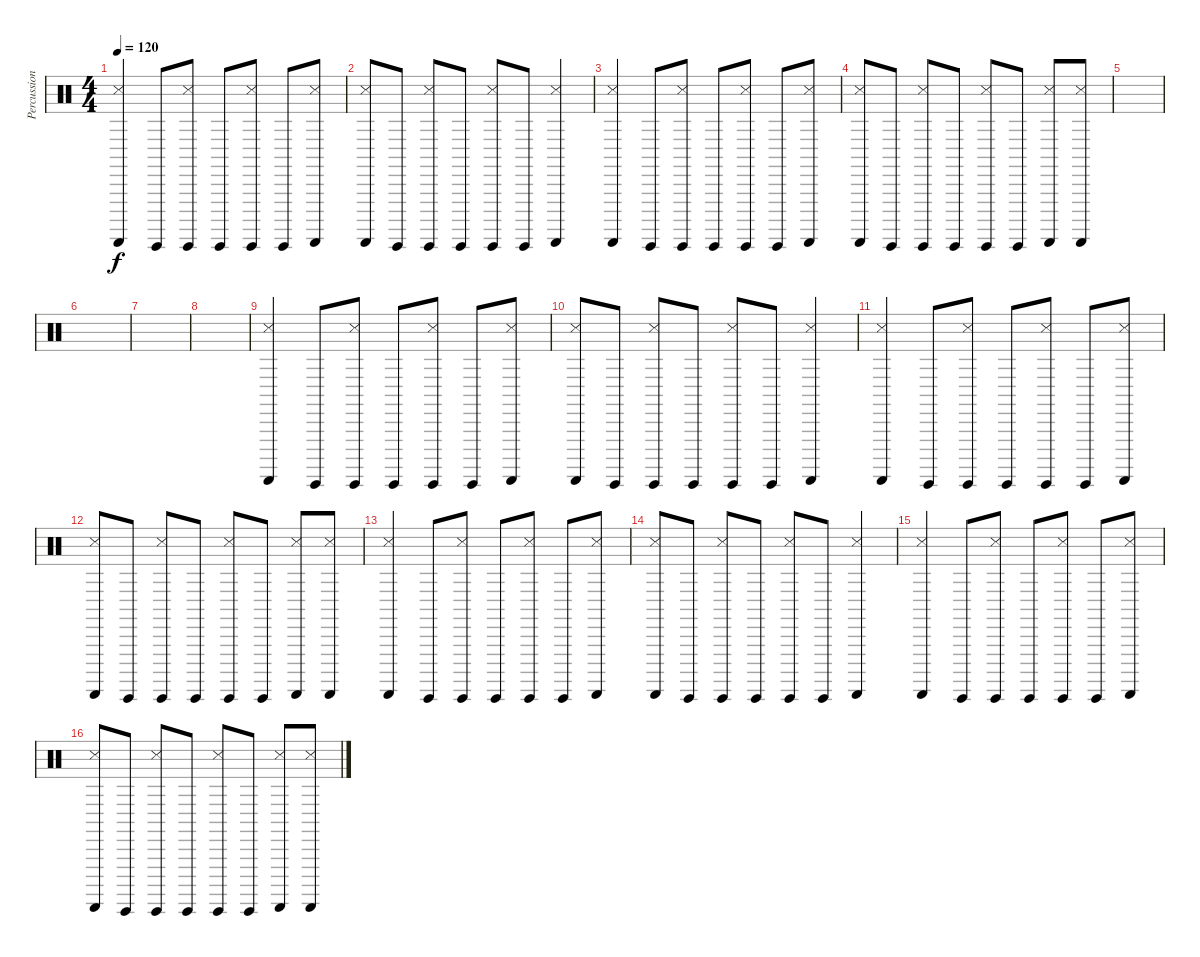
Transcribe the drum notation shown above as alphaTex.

\track ("Percussions" "Percussion") {instrument percussion}
\staff {score}
\articulation defaults
\ts (4 4)
\tempo 120
\clef neutral
\ks c
("Guiro (scrap-return)" "Snare (side stick) 3").4{dy f} "Guiro (hit)".8 ("Guiro (hit)" "Snare (side stick) 3").8 "Guiro (hit)".8 ("Guiro (hit)" "Snare (side stick) 3").8 "Guiro (hit)".8 ("Guiro (scrap-return)" "Snare (side stick) 3").8 |
("Guiro (scrap-return)" "Snare (side stick) 3").8 "Guiro (hit)".8 ("Guiro (hit)" "Snare (side stick) 3").8 "Guiro (hit)".8 ("Guiro (hit)" "Snare (side stick) 3").8 "Guiro (hit)".8 ("Guiro (scrap-return)" "Snare (side stick) 3").4 |
("Guiro (scrap-return)" "Snare (side stick) 3").4 "Guiro (hit)".8 ("Guiro (hit)" "Snare (side stick) 3").8 "Guiro (hit)".8 ("Guiro (hit)" "Snare (side stick) 3").8 "Guiro (hit)".8 ("Guiro (scrap-return)" "Snare (side stick) 3").8 |
("Guiro (scrap-return)" "Snare (side stick) 3").8 "Guiro (hit)".8 ("Guiro (hit)" "Snare (side stick) 3").8 "Guiro (hit)".8 ("Guiro (hit)" "Snare (side stick) 3").8 "Guiro (hit)".8 ("Guiro (scrap-return)" "Snare (side stick) 3").8 ("Guiro (scrap-return)" "Snare (side stick) 3").8 |
|
|
|
|
("Guiro (scrap-return)" "Snare (side stick) 3").4 "Guiro (hit)".8 ("Guiro (hit)" "Snare (side stick) 3").8 "Guiro (hit)".8 ("Guiro (hit)" "Snare (side stick) 3").8 "Guiro (hit)".8 ("Guiro (scrap-return)" "Snare (side stick) 3").8 |
("Guiro (scrap-return)" "Snare (side stick) 3").8 "Guiro (hit)".8 ("Guiro (hit)" "Snare (side stick) 3").8 "Guiro (hit)".8 ("Guiro (hit)" "Snare (side stick) 3").8 "Guiro (hit)".8 ("Guiro (scrap-return)" "Snare (side stick) 3").4 |
("Guiro (scrap-return)" "Snare (side stick) 3").4 "Guiro (hit)".8 ("Guiro (hit)" "Snare (side stick) 3").8 "Guiro (hit)".8 ("Guiro (hit)" "Snare (side stick) 3").8 "Guiro (hit)".8 ("Guiro (scrap-return)" "Snare (side stick) 3").8 |
("Guiro (scrap-return)" "Snare (side stick) 3").8 "Guiro (hit)".8 ("Guiro (hit)" "Snare (side stick) 3").8 "Guiro (hit)".8 ("Guiro (hit)" "Snare (side stick) 3").8 "Guiro (hit)".8 ("Guiro (scrap-return)" "Snare (side stick) 3").8 ("Guiro (scrap-return)" "Snare (side stick) 3").8 |
("Guiro (scrap-return)" "Snare (side stick) 3").4 "Guiro (hit)".8 ("Guiro (hit)" "Snare (side stick) 3").8 "Guiro (hit)".8 ("Guiro (hit)" "Snare (side stick) 3").8 "Guiro (hit)".8 ("Guiro (scrap-return)" "Snare (side stick) 3").8 |
("Guiro (scrap-return)" "Snare (side stick) 3").8 "Guiro (hit)".8 ("Guiro (hit)" "Snare (side stick) 3").8 "Guiro (hit)".8 ("Guiro (hit)" "Snare (side stick) 3").8 "Guiro (hit)".8 ("Guiro (scrap-return)" "Snare (side stick) 3").4 |
("Guiro (scrap-return)" "Snare (side stick) 3").4 "Guiro (hit)".8 ("Guiro (hit)" "Snare (side stick) 3").8 "Guiro (hit)".8 ("Guiro (hit)" "Snare (side stick) 3").8 "Guiro (hit)".8 ("Guiro (scrap-return)" "Snare (side stick) 3").8 |
("Guiro (scrap-return)" "Snare (side stick) 3").8 "Guiro (hit)".8 ("Guiro (hit)" "Snare (side stick) 3").8 "Guiro (hit)".8 ("Guiro (hit)" "Snare (side stick) 3").8 "Guiro (hit)".8 ("Guiro (scrap-return)" "Snare (side stick) 3").8 ("Guiro (scrap-return)" "Snare (side stick) 3").8
